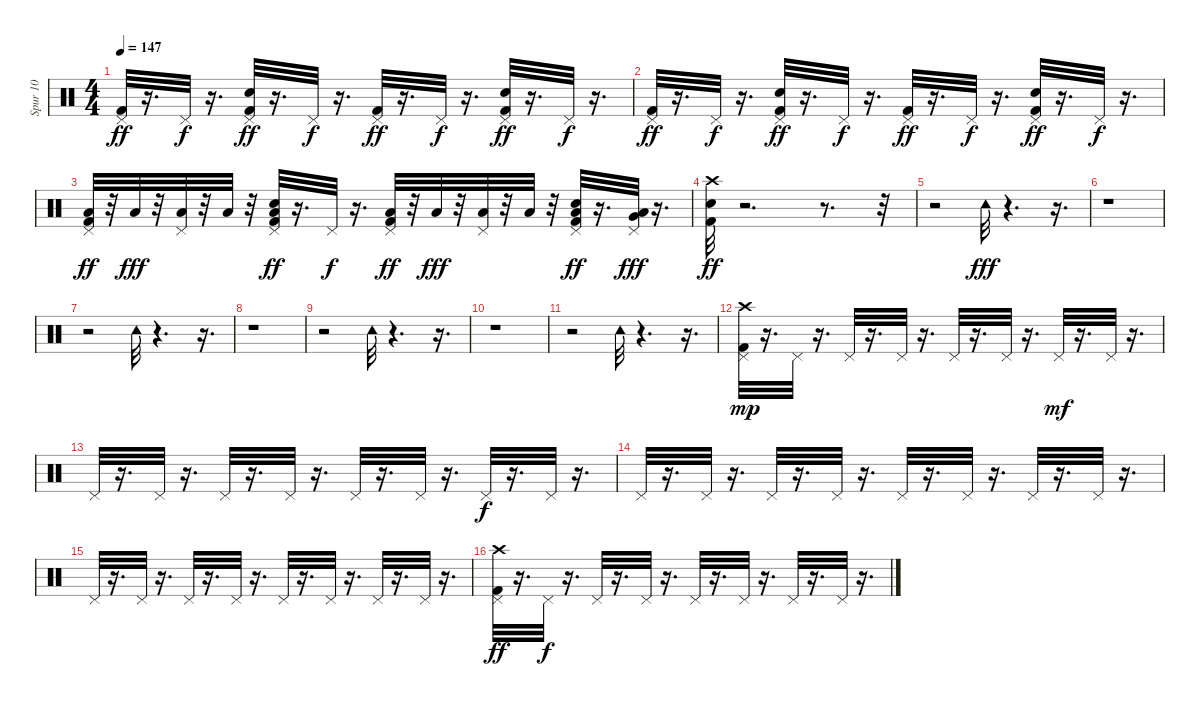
\track ("Spur 10" "Spur 10") {instrument percussion}
\staff {score}
\articulation defaults
\ts (4 4)
\tempo 147
\clef neutral
\ks c
("Pedal Hi-Hat (hit)" "Kick (hit) 2").32{dy ff} r.16{d} "Pedal Hi-Hat (hit)".32{dy f} r.16{d} ("Snare (hit) 2" "Kick (hit) 2" "Pedal Hi-Hat (hit)").32{dy ff} r.16{d} "Pedal Hi-Hat (hit)".32{dy f} r.16{d} ("Kick (hit) 2" "Pedal Hi-Hat (hit)").32{dy ff} r.16{d} "Pedal Hi-Hat (hit)".32{dy f} r.16{d} ("Snare (hit) 2" "Pedal Hi-Hat (hit)" "Kick (hit) 2").32{dy ff} r.16{d} "Pedal Hi-Hat (hit)".32{dy f} r.16{d} |
("Pedal Hi-Hat (hit)" "Kick (hit) 2").32{dy ff} r.16{d} "Pedal Hi-Hat (hit)".32{dy f} r.16{d} ("Snare (hit) 2" "Kick (hit) 2" "Pedal Hi-Hat (hit)").32{dy ff} r.16{d} "Pedal Hi-Hat (hit)".32{dy f} r.16{d} ("Kick (hit) 2" "Pedal Hi-Hat (hit)").32{dy ff} r.16{d} "Pedal Hi-Hat (hit)".32{dy f} r.16{d} ("Snare (hit) 2" "Pedal Hi-Hat (hit)" "Kick (hit) 2").32{dy ff} r.16{d} "Pedal Hi-Hat (hit)".32{dy f} r.16{d} |
("Low Tom (hit)" "Pedal Hi-Hat (hit)" "Kick (hit) 2").32{dy ff} r.32 "Low Tom (hit)".32{dy fff} r.32 ("Low Tom (hit)" "Pedal Hi-Hat (hit)").32 r.32 "Low Tom (hit)".32 r.32 ("Low Tom (hit)" "Snare (hit) 2" "Kick (hit) 2" "Pedal Hi-Hat (hit)").32{dy ff} r.16{d} "Pedal Hi-Hat (hit)".32{dy f} r.16{d} ("Low Floor Tom (hit)" "Kick (hit) 2" "Pedal Hi-Hat (hit)").32{dy ff} r.32 "Low Floor Tom (hit)".32{dy fff} r.32 ("Low Floor Tom (hit)" "Pedal Hi-Hat (hit)").32 r.32 "Low Floor Tom (hit)".32 r.32 ("Low Floor Tom (hit)" "Snare (hit) 2" "Pedal Hi-Hat (hit)" "Kick (hit) 2").32{dy ff} r.16{d} ("Low Floor Tom (hit)" "Very Low Tom (hit)" "Pedal Hi-Hat (hit)").32{dy fff} r.16{d} |
("Snare (hit) 2" "Crash high (hit)" "Kick (hit) 2").32{dy ff} r.2{d} r.8{d} r.32 |
r.2 "Tambourine (hit)".32{dy fff} r.4{d} r.16{d} |
r.1 |
r.2 "Tambourine (hit)".32 r.4{d} r.16{d} |
r.1 |
r.2 "Tambourine (hit)".32 r.4{d} r.16{d} |
r.1 |
r.2 "Tambourine (hit)".32 r.4{d} r.16{d} |
("Crash high (hit)" "Kick (hit) 2" "Pedal Hi-Hat (hit)").32{dy mp} r.16{d} "Pedal Hi-Hat (hit)".32 r.16{d} "Pedal Hi-Hat (hit)".32 r.16{d} "Pedal Hi-Hat (hit)".32 r.16{d} "Pedal Hi-Hat (hit)".32 r.16{d} "Pedal Hi-Hat (hit)".32 r.16{d} "Pedal Hi-Hat (hit)".32{dy mf} r.16{d} "Pedal Hi-Hat (hit)".32 r.16{d} |
"Pedal Hi-Hat (hit)".32 r.16{d} "Pedal Hi-Hat (hit)".32 r.16{d} "Pedal Hi-Hat (hit)".32 r.16{d} "Pedal Hi-Hat (hit)".32 r.16{d} "Pedal Hi-Hat (hit)".32 r.16{d} "Pedal Hi-Hat (hit)".32 r.16{d} "Pedal Hi-Hat (hit)".32{dy f} r.16{d} "Pedal Hi-Hat (hit)".32 r.16{d} |
"Pedal Hi-Hat (hit)".32 r.16{d} "Pedal Hi-Hat (hit)".32 r.16{d} "Pedal Hi-Hat (hit)".32 r.16{d} "Pedal Hi-Hat (hit)".32 r.16{d} "Pedal Hi-Hat (hit)".32 r.16{d} "Pedal Hi-Hat (hit)".32 r.16{d} "Pedal Hi-Hat (hit)".32 r.16{d} "Pedal Hi-Hat (hit)".32 r.16{d} |
"Pedal Hi-Hat (hit)".32 r.16{d} "Pedal Hi-Hat (hit)".32 r.16{d} "Pedal Hi-Hat (hit)".32 r.16{d} "Pedal Hi-Hat (hit)".32 r.16{d} "Pedal Hi-Hat (hit)".32 r.16{d} "Pedal Hi-Hat (hit)".32 r.16{d} "Pedal Hi-Hat (hit)".32 r.16{d} "Pedal Hi-Hat (hit)".32 r.16{d} |
("Crash high (hit)" "Kick (hit) 2" "Pedal Hi-Hat (hit)").32{dy ff} r.16{d} "Pedal Hi-Hat (hit)".32{dy f} r.16{d} "Pedal Hi-Hat (hit)".32 r.16{d} "Pedal Hi-Hat (hit)".32 r.16{d} "Pedal Hi-Hat (hit)".32 r.16{d} "Pedal Hi-Hat (hit)".32 r.16{d} "Pedal Hi-Hat (hit)".32 r.16{d} "Pedal Hi-Hat (hit)".32 r.16{d}
